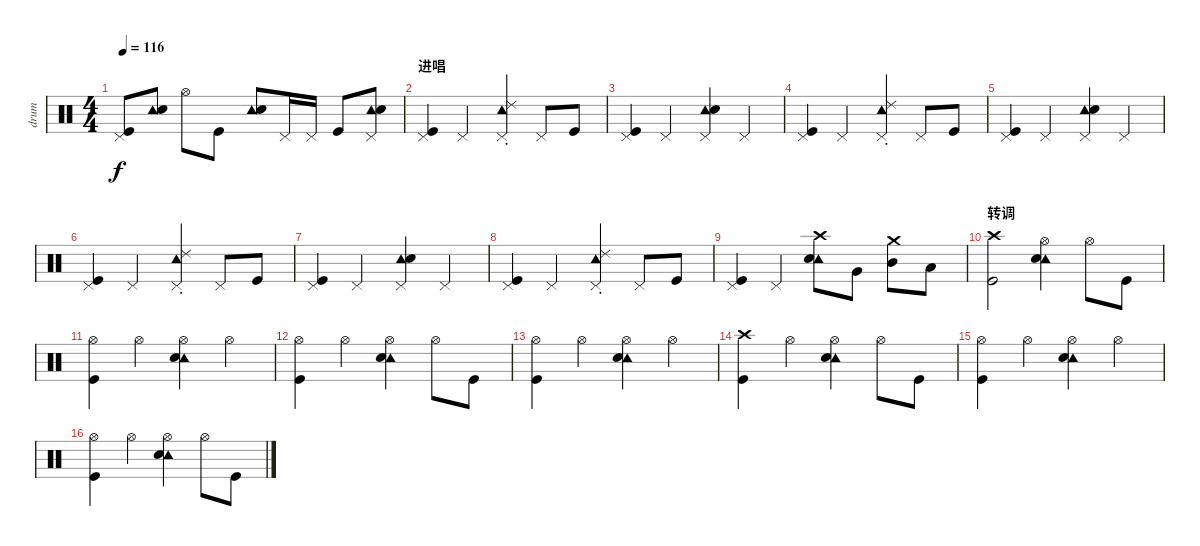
\track ("drum" "drum") {instrument percussion}
\staff {score}
\articulation defaults
\ts (4 4)
\tempo 116
\clef neutral
\ks c
("Pedal Hi-Hat (hit)" "Kick (hit)").8{dy f} ("Tambourine (hit)" "Snare (hit) 2").8 "Hi-Hat (open)".8 "Kick (hit)".8 ("Tambourine (hit)" "Snare (hit) 2").8 "Pedal Hi-Hat (hit)".16 "Pedal Hi-Hat (hit)".16 "Kick (hit)".8 ("Pedal Hi-Hat (hit)" "Tambourine (hit)" "Snare (hit) 2").8 |
\section ("" "进唱")
("Pedal Hi-Hat (hit)" "Kick (hit)").4 "Pedal Hi-Hat (hit)".4 ("Pedal Hi-Hat (hit)" "Tambourine (hit)" "Ride (choke) 2").4 "Pedal Hi-Hat (hit)".8 "Kick (hit)".8 |
("Pedal Hi-Hat (hit)" "Kick (hit)").4 "Pedal Hi-Hat (hit)".4 ("Pedal Hi-Hat (hit)" "Tambourine (hit)" "Snare (hit) 2").4 "Pedal Hi-Hat (hit)".4 |
("Pedal Hi-Hat (hit)" "Kick (hit)").4 "Pedal Hi-Hat (hit)".4 ("Pedal Hi-Hat (hit)" "Tambourine (hit)" "Ride (choke) 2").4 "Pedal Hi-Hat (hit)".8 "Kick (hit)".8 |
("Pedal Hi-Hat (hit)" "Kick (hit)").4 "Pedal Hi-Hat (hit)".4 ("Pedal Hi-Hat (hit)" "Tambourine (hit)" "Snare (hit) 2").4 "Pedal Hi-Hat (hit)".4 |
("Pedal Hi-Hat (hit)" "Kick (hit)").4 "Pedal Hi-Hat (hit)".4 ("Pedal Hi-Hat (hit)" "Tambourine (hit)" "Ride (choke) 2").4 "Pedal Hi-Hat (hit)".8 "Kick (hit)".8 |
("Pedal Hi-Hat (hit)" "Kick (hit)").4 "Pedal Hi-Hat (hit)".4 ("Pedal Hi-Hat (hit)" "Tambourine (hit)" "Snare (hit) 2").4 "Pedal Hi-Hat (hit)".4 |
("Pedal Hi-Hat (hit)" "Kick (hit)").4 "Pedal Hi-Hat (hit)".4 ("Pedal Hi-Hat (hit)" "Tambourine (hit)" "Ride (choke) 2").4 "Pedal Hi-Hat (hit)".8 "Kick (hit)".8 |
("Pedal Hi-Hat (hit)" "Kick (hit)").4 "Pedal Hi-Hat (hit)".4 ("Crash high (hit)" "Tambourine (hit)" "Snare (hit) 2").8 "Very Low Tom (hit)".8 ("Crash medium (hit)" "Mid Tom (hit)").8 "Low Tom (hit)".8 |
\section ("" "转调")
("Crash high (hit)" "Kick (hit)").2 ("Hi-Hat (open)" "Tambourine (hit)" "Snare (hit) 2").4 "Hi-Hat (open)".8 "Kick (hit)".8 |
("Hi-Hat (open)" "Kick (hit)").4 "Hi-Hat (open)".4 ("Hi-Hat (open)" "Tambourine (hit)" "Snare (hit) 2").4 "Hi-Hat (open)".4 |
("Hi-Hat (open)" "Kick (hit)").4 "Hi-Hat (open)".4 ("Hi-Hat (open)" "Tambourine (hit)" "Snare (hit) 2").4 "Hi-Hat (open)".8 "Kick (hit)".8 |
("Hi-Hat (open)" "Kick (hit)").4 "Hi-Hat (open)".4 ("Hi-Hat (open)" "Tambourine (hit)" "Snare (hit) 2").4 "Hi-Hat (open)".4 |
("Crash high (hit)" "Kick (hit)").4 "Hi-Hat (open)".4 ("Hi-Hat (open)" "Tambourine (hit)" "Snare (hit) 2").4 "Hi-Hat (open)".8 "Kick (hit)".8 |
("Hi-Hat (open)" "Kick (hit)").4 "Hi-Hat (open)".4 ("Hi-Hat (open)" "Tambourine (hit)" "Snare (hit) 2").4 "Hi-Hat (open)".4 |
("Hi-Hat (open)" "Kick (hit)").4 "Hi-Hat (open)".4 ("Hi-Hat (open)" "Tambourine (hit)" "Snare (hit) 2").4 "Hi-Hat (open)".8 "Kick (hit)".8
